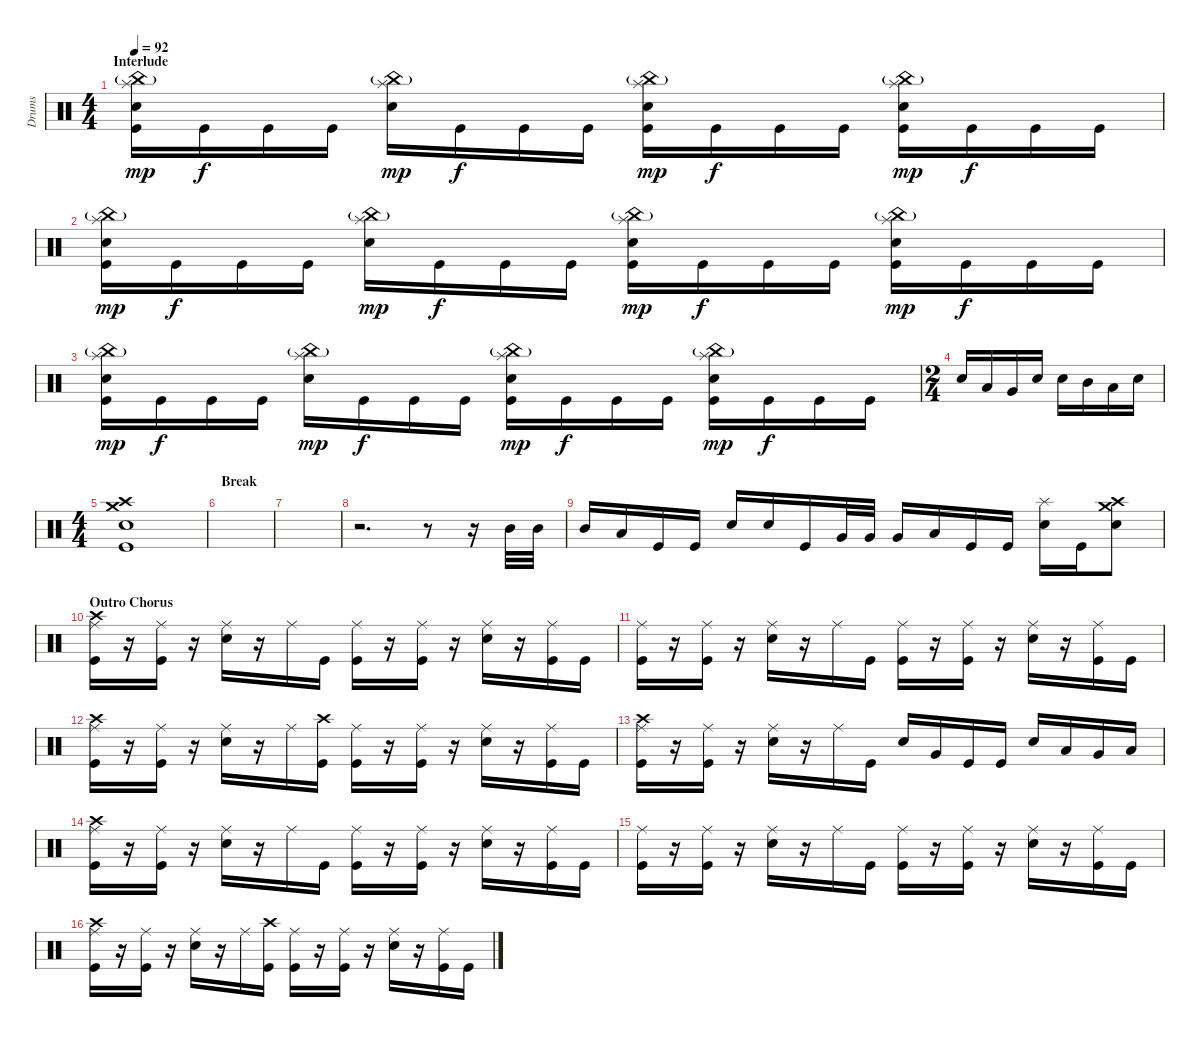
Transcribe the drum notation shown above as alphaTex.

\track ("Drums" "Drums") {instrument percussion}
\staff {score}
\articulation defaults
\ts (4 4)
\section ("" "Interlude")
\tempo 92
\clef neutral
\ks c
("China (hit)"{g} "Splash (hit)" "Snare (hit) 2" "Kick (hit)").16{dy mp} "Kick (hit)".16{dy f} "Kick (hit)".16 "Kick (hit)".16 ("China (hit)"{g} "Splash (hit)" "Snare (hit) 2").16{dy mp} "Kick (hit)".16{dy f} "Kick (hit)".16 "Kick (hit)".16 ("China (hit)"{g} "Splash (hit)" "Snare (hit) 2" "Kick (hit)").16{dy mp} "Kick (hit)".16{dy f} "Kick (hit)".16 "Kick (hit)".16 ("China (hit)"{g} "Splash (hit)" "Snare (hit) 2" "Kick (hit)").16{dy mp} "Kick (hit)".16{dy f} "Kick (hit)".16 "Kick (hit)".16 |
("China (hit)"{g} "Splash (hit)" "Snare (hit) 2" "Kick (hit)").16{dy mp} "Kick (hit)".16{dy f} "Kick (hit)".16 "Kick (hit)".16 ("China (hit)"{g} "Splash (hit)" "Snare (hit) 2").16{dy mp} "Kick (hit)".16{dy f} "Kick (hit)".16 "Kick (hit)".16 ("China (hit)"{g} "Splash (hit)" "Snare (hit) 2" "Kick (hit)").16{dy mp} "Kick (hit)".16{dy f} "Kick (hit)".16 "Kick (hit)".16 ("China (hit)"{g} "Splash (hit)" "Snare (hit) 2" "Kick (hit)").16{dy mp} "Kick (hit)".16{dy f} "Kick (hit)".16 "Kick (hit)".16 |
("China (hit)"{g} "Splash (hit)" "Snare (hit) 2" "Kick (hit)").16{dy mp} "Kick (hit)".16{dy f} "Kick (hit)".16 "Kick (hit)".16 ("China (hit)"{g} "Splash (hit)" "Snare (hit) 2").16{dy mp} "Kick (hit)".16{dy f} "Kick (hit)".16 "Kick (hit)".16 ("China (hit)"{g} "Splash (hit)" "Snare (hit) 2" "Kick (hit)").16{dy mp} "Kick (hit)".16{dy f} "Kick (hit)".16 "Kick (hit)".16 ("China (hit)"{g} "Splash (hit)" "Snare (hit) 2" "Kick (hit)").16{dy mp} "Kick (hit)".16{dy f} "Kick (hit)".16 "Kick (hit)".16 |
\ts (2 4)
"Snare (hit) 2".16 "Low Tom (hit)".16 "Very Low Tom (hit)".16 "Snare (hit) 2".16 "Snare (hit) 2".16 "Mid Tom (hit)".16 "Low Tom (hit)".16 "Snare (hit) 2".16 |
\ts (4 4)
("Crash high (hit)" "Crash medium (hit)" "Snare (hit) 2" "Kick (hit)").1 |
\section ("" "Break")
|
|
r.2{d} r.8 r.16 "Mid Tom (hit)".32 "Mid Tom (hit)".32 |
"Mid Tom (hit)".16 "Low Tom (hit)".16 "Kick (hit)".16 "Kick (hit)".16 "Snare (hit) 2".16 "Snare (hit) 2".16 "Kick (hit)".16 "Very Low Tom (hit)".32 "Very Low Tom (hit)".32 "Very Low Tom (hit)".16 "Low Floor Tom (hit)".16 "Kick (hit)".16 "Kick (hit)".16 ("Splash (hit)" "Snare (hit) 2").16 "Kick (hit)".16 ("Crash high (hit)" "Crash medium (hit)" "Snare (hit) 2").8 |
\section ("" "Outro Chorus")
("Ride (middle)" "Crash high (hit)" "Kick (hit)").16 r.16 ("Ride (middle)" "Kick (hit)").16 r.16 ("Ride (middle)" "Snare (hit) 2").16 r.16 "Ride (middle)".16 "Kick (hit)".16 ("Ride (middle)" "Kick (hit)").16 r.16 ("Ride (middle)" "Kick (hit)").16 r.16 ("Ride (middle)" "Snare (hit) 2").16 r.16 ("Ride (middle)" "Kick (hit)").16 "Kick (hit)".16 |
("Ride (middle)" "Kick (hit)").16 r.16 ("Ride (middle)" "Kick (hit)").16 r.16 ("Ride (middle)" "Snare (hit) 2").16 r.16 "Ride (middle)".16 "Kick (hit)".16 ("Ride (middle)" "Kick (hit)").16 r.16 ("Ride (middle)" "Kick (hit)").16 r.16 ("Ride (middle)" "Snare (hit) 2").16 r.16 ("Ride (middle)" "Kick (hit)").16 "Kick (hit)".16 |
("Ride (middle)" "Crash high (hit)" "Kick (hit)").16 r.16 ("Ride (middle)" "Kick (hit)").16 r.16 ("Ride (middle)" "Snare (hit) 2").16 r.16 "Ride (middle)".16 ("Crash high (hit)" "Kick (hit)").16 ("Ride (middle)" "Kick (hit)").16 r.16 ("Ride (middle)" "Kick (hit)").16 r.16 ("Ride (middle)" "Snare (hit) 2").16 r.16 ("Ride (middle)" "Kick (hit)").16 "Kick (hit)".16 |
("Ride (middle)" "Crash high (hit)" "Kick (hit)").16 r.16 ("Ride (middle)" "Kick (hit)").16 r.16 ("Ride (middle)" "Snare (hit) 2").16 r.16 "Ride (middle)".16 "Kick (hit)".16 "Snare (hit) 2".16 "Very Low Tom (hit)".16 "Kick (hit)".16 "Kick (hit)".16 "Snare (hit) 2".16 "Low Tom (hit)".16 "Very Low Tom (hit)".16 "Low Tom (hit)".16 |
("Ride (middle)" "Crash high (hit)" "Kick (hit)").16 r.16 ("Ride (middle)" "Kick (hit)").16 r.16 ("Ride (middle)" "Snare (hit) 2").16 r.16 "Ride (middle)".16 "Kick (hit)".16 ("Ride (middle)" "Kick (hit)").16 r.16 ("Ride (middle)" "Kick (hit)").16 r.16 ("Ride (middle)" "Snare (hit) 2").16 r.16 ("Ride (middle)" "Kick (hit)").16 "Kick (hit)".16 |
("Ride (middle)" "Kick (hit)").16 r.16 ("Ride (middle)" "Kick (hit)").16 r.16 ("Ride (middle)" "Snare (hit) 2").16 r.16 "Ride (middle)".16 "Kick (hit)".16 ("Ride (middle)" "Kick (hit)").16 r.16 ("Ride (middle)" "Kick (hit)").16 r.16 ("Ride (middle)" "Snare (hit) 2").16 r.16 ("Ride (middle)" "Kick (hit)").16 "Kick (hit)".16 |
("Ride (middle)" "Crash high (hit)" "Kick (hit)").16 r.16 ("Ride (middle)" "Kick (hit)").16 r.16 ("Ride (middle)" "Snare (hit) 2").16 r.16 "Ride (middle)".16 ("Crash high (hit)" "Kick (hit)").16 ("Ride (middle)" "Kick (hit)").16 r.16 ("Ride (middle)" "Kick (hit)").16 r.16 ("Ride (middle)" "Snare (hit) 2").16 r.16 ("Ride (middle)" "Kick (hit)").16 "Kick (hit)".16
